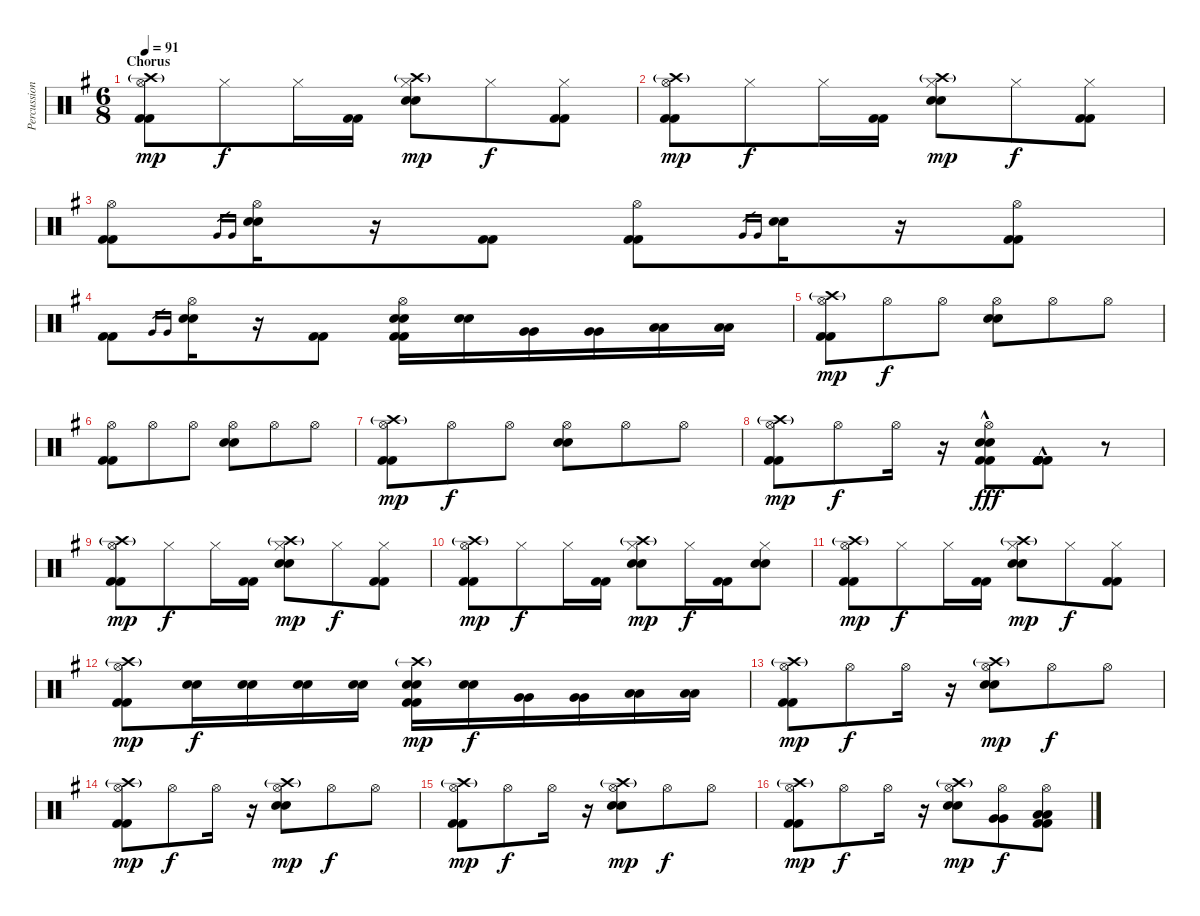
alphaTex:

\track ("Percussion" "Percussion") {instrument percussion}
\staff {score}
\articulation defaults
\ts (6 8)
\section ("" "Chorus")
\tempo 91
\clef neutral
\ks eminor
("Hi-Hat (open)" "Crash high (hit)"{g} "Kick (hit) 2" "Kick (hit) 2").8{dy mp} "Hi-Hat (closed)".8{dy f} "Hi-Hat (closed)".16 ("Kick (hit) 2" "Kick (hit) 2").16 ("Hi-Hat (closed)" "Crash high (hit)"{g} "Snare (hit) 2" "Snare (hit) 2").8{dy mp} "Hi-Hat (closed)".8{dy f} ("Hi-Hat (closed)" "Kick (hit) 2" "Kick (hit) 2").8 |
("Hi-Hat (open)" "Crash high (hit)"{g} "Kick (hit) 2" "Kick (hit) 2").8{dy mp} "Hi-Hat (closed)".8{dy f} "Hi-Hat (closed)".16 ("Kick (hit) 2" "Kick (hit) 2").16 ("Hi-Hat (closed)" "Crash high (hit)"{g} "Snare (hit) 2" "Snare (hit) 2").8{dy mp} "Hi-Hat (closed)".8{dy f} ("Hi-Hat (closed)" "Kick (hit) 2" "Kick (hit) 2").8 |
("Hi-Hat (open)" "Kick (hit) 2" "Kick (hit) 2").8 "Very Low Tom (hit)".16{gr} "Very Low Tom (hit)".16{gr} ("Hi-Hat (open)" "Snare (hit) 2" "Snare (hit) 2").16 r.16 ("Kick (hit) 2" "Kick (hit) 2").8 ("Hi-Hat (open)" "Kick (hit) 2" "Kick (hit) 2").8 "Very Low Tom (hit)".16{gr} "Very Low Tom (hit)".16{gr} ("Snare (hit) 2" "Snare (hit) 2").16 r.16 ("Hi-Hat (open)" "Kick (hit) 2" "Kick (hit) 2").8 |
("Kick (hit) 2" "Kick (hit) 2").8 "Very Low Tom (hit)".16{gr} "Very Low Tom (hit)".16{gr} ("Hi-Hat (open)" "Snare (hit) 2" "Snare (hit) 2").16 r.16 ("Kick (hit) 2" "Kick (hit) 2").8 ("Hi-Hat (open)" "Snare (hit) 2" "Snare (hit) 2" "Kick (hit) 2" "Kick (hit) 2").16 ("Snare (hit) 2" "Snare (hit) 2").16 ("Very Low Tom (hit)" "Very Low Tom (hit)").16 ("Very Low Tom (hit)" "Very Low Tom (hit)").16 ("Low Floor Tom (hit)" "Low Floor Tom (hit)").16 ("Low Floor Tom (hit)" "Low Floor Tom (hit)").16 |
("Hi-Hat (open)" "Crash high (hit)"{g} "Kick (hit) 2" "Kick (hit) 2").8{dy mp} "Hi-Hat (open)".8{dy f} "Hi-Hat (open)".8 ("Hi-Hat (open)" "Snare (hit) 2" "Snare (hit) 2").8 "Hi-Hat (open)".8 "Hi-Hat (open)".8 |
("Hi-Hat (open)" "Kick (hit) 2" "Kick (hit) 2").8 "Hi-Hat (open)".8 "Hi-Hat (open)".8 ("Hi-Hat (open)" "Snare (hit) 2" "Snare (hit) 2").8 "Hi-Hat (open)".8 "Hi-Hat (open)".8 |
("Hi-Hat (open)" "Crash high (hit)"{g} "Kick (hit) 2" "Kick (hit) 2").8{dy mp} "Hi-Hat (open)".8{dy f} "Hi-Hat (open)".8 ("Hi-Hat (open)" "Snare (hit) 2" "Snare (hit) 2").8 "Hi-Hat (open)".8 "Hi-Hat (open)".8 |
("Hi-Hat (open)" "Crash high (hit)"{g} "Kick (hit) 2" "Kick (hit) 2").8{dy mp} "Hi-Hat (open)".8{dy f} "Hi-Hat (open)".16 r.16 ("Hi-Hat (open)" "Snare (hit) 2"{hac} "Snare (hit) 2"{hac} "Kick (hit) 2"{hac} "Kick (hit) 2"{hac}).8{dy fff} ("Kick (hit) 2"{hac} "Kick (hit) 2"{hac} "Kick (hit) 2"{hac} "Kick (hit) 2"{hac} "Kick (hit) 2"{hac} "Kick (hit) 2"{hac}).8 r.8 |
("Hi-Hat (open)" "Crash high (hit)"{g} "Kick (hit) 2" "Kick (hit) 2").8{dy mp} "Hi-Hat (closed)".8{dy f} "Hi-Hat (closed)".16 ("Kick (hit) 2" "Kick (hit) 2").16 ("Hi-Hat (closed)" "Crash high (hit)"{g} "Snare (hit) 2" "Snare (hit) 2").8{dy mp} "Hi-Hat (closed)".8{dy f} ("Hi-Hat (closed)" "Kick (hit) 2" "Kick (hit) 2").8 |
("Hi-Hat (open)" "Crash high (hit)"{g} "Kick (hit) 2" "Kick (hit) 2").8{dy mp} "Hi-Hat (closed)".8{dy f} "Hi-Hat (closed)".16 ("Kick (hit) 2" "Kick (hit) 2").16 ("Hi-Hat (closed)" "Crash high (hit)"{g} "Snare (hit) 2" "Snare (hit) 2").8{dy mp} "Hi-Hat (closed)".16{dy f} ("Kick (hit) 2" "Kick (hit) 2").16 ("Hi-Hat (closed)" "Snare (hit) 2" "Snare (hit) 2").8 |
("Hi-Hat (open)" "Crash high (hit)"{g} "Kick (hit) 2" "Kick (hit) 2").8{dy mp} "Hi-Hat (closed)".8{dy f} "Hi-Hat (closed)".16 ("Kick (hit) 2" "Kick (hit) 2").16 ("Hi-Hat (closed)" "Crash high (hit)"{g} "Snare (hit) 2" "Snare (hit) 2").8{dy mp} "Hi-Hat (closed)".8{dy f} ("Hi-Hat (closed)" "Kick (hit) 2" "Kick (hit) 2").8 |
("Hi-Hat (open)" "Crash high (hit)"{g} "Kick (hit) 2" "Kick (hit) 2").8{dy mp} ("Snare (hit) 2" "Snare (hit) 2").16{dy f} ("Snare (hit) 2" "Snare (hit) 2").16 ("Snare (hit) 2" "Snare (hit) 2").16 ("Snare (hit) 2" "Snare (hit) 2").16 ("Crash high (hit)"{g} "Snare (hit) 2" "Snare (hit) 2" "Kick (hit) 2" "Kick (hit) 2").16{dy mp} ("Snare (hit) 2" "Snare (hit) 2").16{dy f} ("Very Low Tom (hit)" "Very Low Tom (hit)").16 ("Very Low Tom (hit)" "Very Low Tom (hit)").16 ("Low Floor Tom (hit)" "Low Floor Tom (hit)").16 ("Low Floor Tom (hit)" "Low Floor Tom (hit)").16 |
("Hi-Hat (open)" "Crash high (hit)"{g} "Kick (hit) 2" "Kick (hit) 2").8{dy mp} "Hi-Hat (open)".8{dy f} "Hi-Hat (open)".16 r.16 ("Hi-Hat (open)" "Crash high (hit)"{g} "Snare (hit) 2" "Snare (hit) 2").8{dy mp} "Hi-Hat (open)".8{dy f} "Hi-Hat (open)".8 |
("Hi-Hat (open)" "Crash high (hit)"{g} "Kick (hit) 2" "Kick (hit) 2").8{dy mp} "Hi-Hat (open)".8{dy f} "Hi-Hat (open)".16 r.16 ("Hi-Hat (open)" "Crash high (hit)"{g} "Snare (hit) 2" "Snare (hit) 2").8{dy mp} "Hi-Hat (open)".8{dy f} "Hi-Hat (open)".8 |
("Hi-Hat (open)" "Crash high (hit)"{g} "Kick (hit) 2" "Kick (hit) 2").8{dy mp} "Hi-Hat (open)".8{dy f} "Hi-Hat (open)".16 r.16 ("Hi-Hat (open)" "Crash high (hit)"{g} "Snare (hit) 2" "Snare (hit) 2").8{dy mp} "Hi-Hat (open)".8{dy f} "Hi-Hat (open)".8 |
("Hi-Hat (open)" "Crash high (hit)"{g} "Kick (hit) 2" "Kick (hit) 2").8{dy mp} "Hi-Hat (open)".8{dy f} "Hi-Hat (open)".16 r.16 ("Hi-Hat (open)" "Crash high (hit)"{g} "Snare (hit) 2" "Snare (hit) 2").8{dy mp} ("Hi-Hat (open)" "Very Low Tom (hit)" "Very Low Tom (hit)").8{dy f} ("Hi-Hat (open)" "Low Floor Tom (hit)" "Low Floor Tom (hit)" "Kick (hit) 2" "Kick (hit) 2").8
